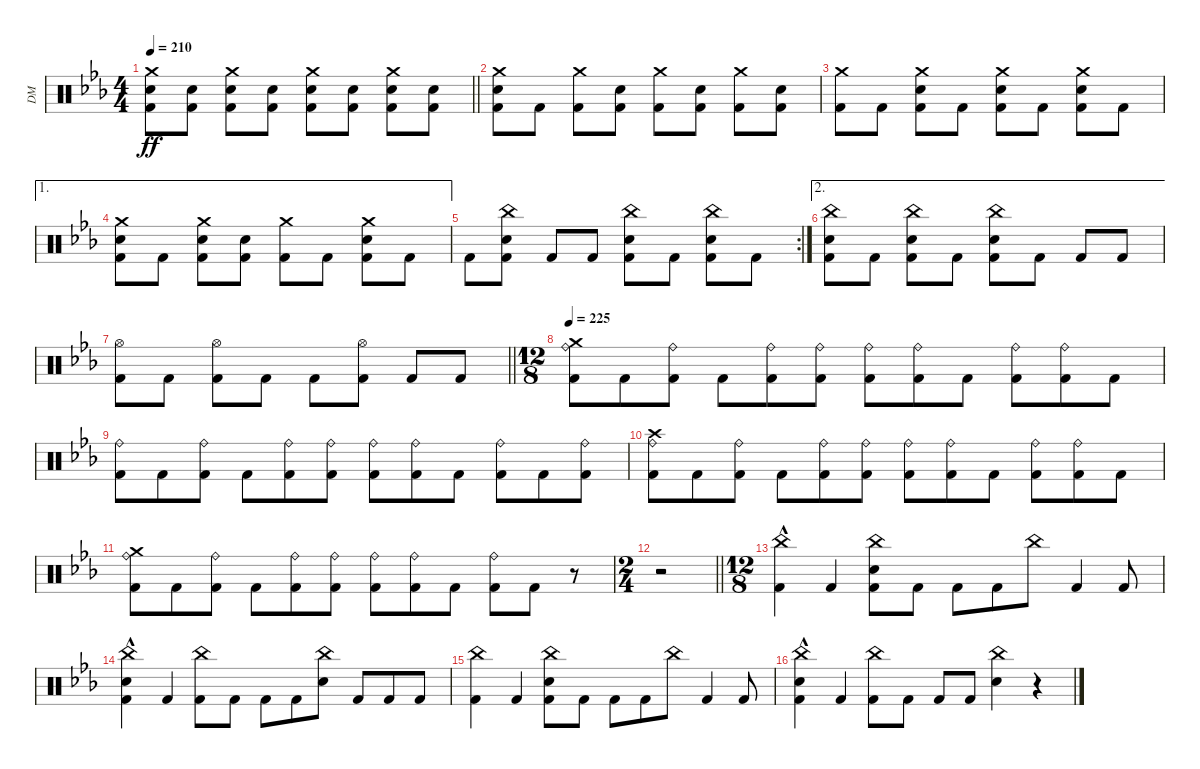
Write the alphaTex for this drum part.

\track ("DM" "DM") {instrument percussion}
\staff {score}
\articulation defaults
\ts (4 4)
\tempo 210
\clef neutral
\barLineRight lightlight
\ks cminor
("Crash medium (hit)" "Electric Snare (hit)" "Kick (hit) 2").8{dy ff} ("Electric Snare (hit)" "Kick (hit) 2").8 ("Crash medium (hit)" "Electric Snare (hit)" "Kick (hit) 2").8 ("Electric Snare (hit)" "Kick (hit) 2").8 ("Crash medium (hit)" "Electric Snare (hit)" "Kick (hit) 2").8 ("Electric Snare (hit)" "Kick (hit) 2").8 ("Crash medium (hit)" "Electric Snare (hit)" "Kick (hit) 2").8 ("Electric Snare (hit)" "Kick (hit) 2").8 |
\section ("" "")
("Crash medium (hit)" "Electric Snare (hit)" "Kick (hit) 2").8 "Kick (hit) 2".8 ("Crash medium (hit)" "Kick (hit) 2").8 ("Electric Snare (hit)" "Kick (hit) 2").8 ("Crash medium (hit)" "Kick (hit) 2").8 ("Electric Snare (hit)" "Kick (hit) 2").8 ("Crash medium (hit)" "Kick (hit) 2").8 ("Electric Snare (hit)" "Kick (hit) 2").8 |
("Crash medium (hit)" "Kick (hit) 2").8 "Kick (hit) 2".8 ("Crash medium (hit)" "Electric Snare (hit)" "Kick (hit) 2").8 "Kick (hit) 2".8 ("Crash medium (hit)" "Electric Snare (hit)" "Kick (hit) 2").8 "Kick (hit) 2".8 ("Crash medium (hit)" "Electric Snare (hit)" "Kick (hit) 2").8 "Kick (hit) 2".8 |
\ae 1
("Crash medium (hit)" "Electric Snare (hit)" "Kick (hit) 2").8 "Kick (hit) 2".8 ("Crash medium (hit)" "Electric Snare (hit)" "Kick (hit) 2").8 ("Electric Snare (hit)" "Kick (hit) 2").8 ("Crash medium (hit)" "Kick (hit) 2").8 "Kick (hit) 2".8 ("Crash medium (hit)" "Electric Snare (hit)" "Kick (hit) 2").8 "Kick (hit) 2".8 |
\rc 2 "Kick (hit) 2".8
("China (hit)" "Electric Snare (hit)" "Kick (hit) 2").8 "Kick (hit) 2".8 "Kick (hit) 2".8 ("China (hit)" "Electric Snare (hit)" "Kick (hit) 2").8 "Kick (hit) 2".8 ("China (hit)" "Electric Snare (hit)" "Kick (hit) 2").8 "Kick (hit) 2".8 |
\ae 2
("China (hit)" "Electric Snare (hit)" "Kick (hit) 2").8 "Kick (hit) 2".8 ("China (hit)" "Electric Snare (hit)" "Kick (hit) 2").8 "Kick (hit) 2".8 ("China (hit)" "Electric Snare (hit)" "Kick (hit) 2").8 "Kick (hit) 2".8 "Kick (hit) 2".8 "Kick (hit) 2".8 |
\barLineRight lightlight
("Hi-Hat (open)" "Kick (hit) 2").8 "Kick (hit) 2".8 ("Hi-Hat (open)" "Kick (hit) 2").8 "Kick (hit) 2".8 "Kick (hit) 2".8 ("Hi-Hat (open)" "Kick (hit) 2").8 "Kick (hit) 2".8 "Kick (hit) 2".8 |
\ts (12 8)
\section ("" "")
\tempo 225
("Crash medium (hit)" "Ride (bell)" "Kick (hit) 2").8 "Kick (hit) 2".8 ("Ride (bell)" "Kick (hit) 2").8 "Kick (hit) 2".8 ("Ride (bell)" "Kick (hit) 2").8 ("Ride (bell)" "Kick (hit) 2").8 ("Ride (bell)" "Kick (hit) 2").8 ("Ride (bell)" "Kick (hit) 2").8 "Kick (hit) 2".8 ("Ride (bell)" "Kick (hit) 2").8 ("Ride (bell)" "Kick (hit) 2").8 "Kick (hit) 2".8 |
("Ride (bell)" "Kick (hit) 2").8 "Kick (hit) 2".8 ("Ride (bell)" "Kick (hit) 2").8 "Kick (hit) 2".8 ("Ride (bell)" "Kick (hit) 2").8 ("Ride (bell)" "Kick (hit) 2").8 ("Ride (bell)" "Kick (hit) 2").8 ("Ride (bell)" "Kick (hit) 2").8 "Kick (hit) 2".8 ("Ride (bell)" "Kick (hit) 2").8 "Kick (hit) 2".8 ("Ride (bell)" "Kick (hit) 2").8 |
("Crash high (hit)" "Ride (bell)" "Kick (hit) 2").8 "Kick (hit) 2".8 ("Ride (bell)" "Kick (hit) 2").8 "Kick (hit) 2".8 ("Ride (bell)" "Kick (hit) 2").8 ("Ride (bell)" "Kick (hit) 2").8 ("Ride (bell)" "Kick (hit) 2").8 ("Ride (bell)" "Kick (hit) 2").8 "Kick (hit) 2".8 ("Ride (bell)" "Kick (hit) 2").8 ("Ride (bell)" "Kick (hit) 2").8 "Kick (hit) 2".8 |
("Crash medium (hit)" "Ride (bell)" "Kick (hit) 2").8 "Kick (hit) 2".8 ("Ride (bell)" "Kick (hit) 2").8 "Kick (hit) 2".8 ("Ride (bell)" "Kick (hit) 2").8 ("Ride (bell)" "Kick (hit) 2").8 ("Ride (bell)" "Kick (hit) 2").8 ("Ride (bell)" "Kick (hit) 2").8 "Kick (hit) 2".8 ("Ride (bell)" "Kick (hit) 2").8 "Kick (hit) 2".8 r.8 |
\ts (2 4)
\barLineRight lightlight
r.2 |
\ts (12 8)
\section ("" "")
("China (hit)" "Kick (hit) 2"{hac}).4 "Kick (hit) 2".4 ("China (hit)" "Electric Snare (hit)" "Kick (hit) 2").8 "Kick (hit) 2".8 "Kick (hit) 2".8 "Kick (hit) 2".8 "China (hit)".8 "Kick (hit) 2".4 "Kick (hit) 2".8 |
("China (hit)" "Electric Snare (hit)" "Kick (hit) 2"{hac}).4 "Kick (hit) 2".4 ("China (hit)" "Kick (hit) 2").8 "Kick (hit) 2".8 "Kick (hit) 2".8 "Kick (hit) 2".8 ("China (hit)" "Electric Snare (hit)").8 "Kick (hit) 2".8 "Kick (hit) 2".8 "Kick (hit) 2".8 |
("China (hit)" "Kick (hit) 2").4 "Kick (hit) 2".4 ("China (hit)" "Electric Snare (hit)" "Kick (hit) 2").8 "Kick (hit) 2".8 "Kick (hit) 2".8 "Kick (hit) 2".8 "China (hit)".8 "Kick (hit) 2".4 "Kick (hit) 2".8 |
("China (hit)" "Electric Snare (hit)" "Kick (hit) 2"{hac}).4 "Kick (hit) 2".4 ("China (hit)" "Kick (hit) 2").8 "Kick (hit) 2".8 "Kick (hit) 2".8 "Kick (hit) 2".8 ("China (hit)" "Electric Snare (hit)").4 r.4
